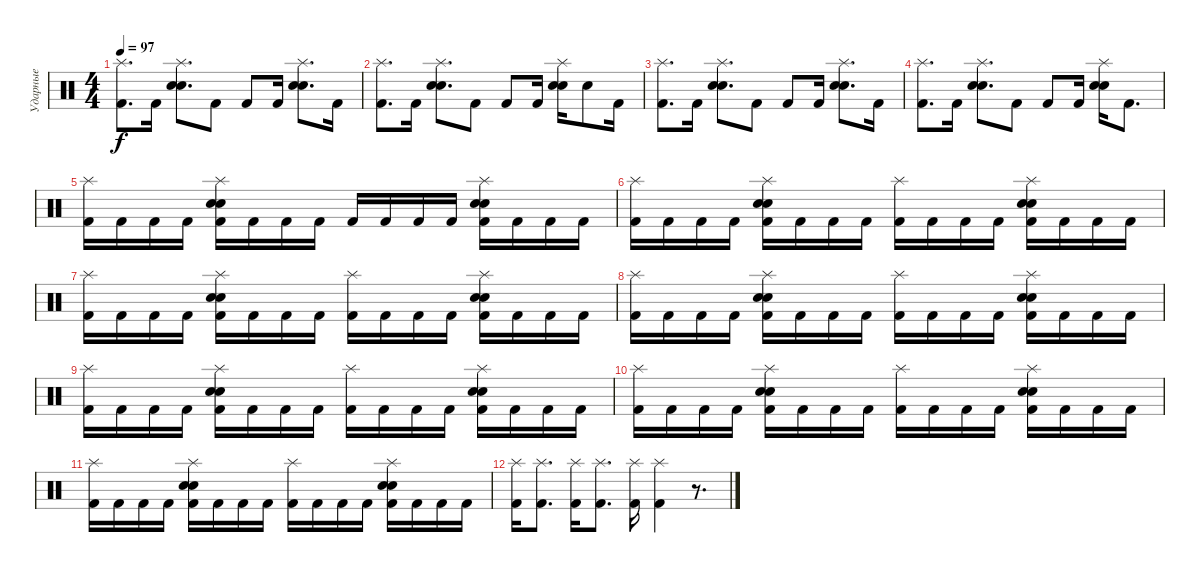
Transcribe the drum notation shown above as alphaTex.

\track ("Ударные" "Ударные") {instrument percussion}
\staff {score}
\articulation defaults
\ts (4 4)
\tempo 97
\clef neutral
\ks c
("Splash (hit)" "Kick (hit) 2").8{d dy f} "Kick (hit) 2".16 ("Splash (hit)" "Electric Snare (hit)" "Snare (hit) 2").8{d} "Kick (hit) 2".8 "Kick (hit) 2".8 "Kick (hit) 2".16 ("Splash (hit)" "Electric Snare (hit)" "Snare (hit) 2").8{d} "Kick (hit) 2".16 |
("Splash (hit)" "Kick (hit) 2").8{d} "Kick (hit) 2".16 ("Splash (hit)" "Electric Snare (hit)" "Snare (hit) 2").8{d} "Kick (hit) 2".8 "Kick (hit) 2".8 "Kick (hit) 2".16 ("Splash (hit)" "Electric Snare (hit)" "Snare (hit) 2").16 "Electric Snare (hit)".8 "Kick (hit) 2".16 |
("Splash (hit)" "Kick (hit) 2").8{d} "Kick (hit) 2".16 ("Splash (hit)" "Electric Snare (hit)" "Snare (hit) 2").8{d} "Kick (hit) 2".8 "Kick (hit) 2".8 "Kick (hit) 2".16 ("Splash (hit)" "Electric Snare (hit)" "Snare (hit) 2").8{d} "Kick (hit) 2".16 |
("Splash (hit)" "Kick (hit) 2").8{d} "Kick (hit) 2".16 ("Splash (hit)" "Electric Snare (hit)" "Snare (hit) 2").8{d} "Kick (hit) 2".8 "Kick (hit) 2".8 "Kick (hit) 2".16 ("Splash (hit)" "Electric Snare (hit)" "Snare (hit) 2").16 "Kick (hit) 2".8{d} |
("Splash (hit)" "Kick (hit) 2").16 "Kick (hit) 2".16 "Kick (hit) 2".16 "Kick (hit) 2".16 ("Splash (hit)" "Electric Snare (hit)" "Snare (hit) 2" "Kick (hit) 2").16 "Kick (hit) 2".16 "Kick (hit) 2".16 "Kick (hit) 2".16 "Kick (hit) 2".16 "Kick (hit) 2".16 "Kick (hit) 2".16 "Kick (hit) 2".16 ("Splash (hit)" "Electric Snare (hit)" "Snare (hit) 2" "Kick (hit) 2").16 "Kick (hit) 2".16 "Kick (hit) 2".16 "Kick (hit) 2".16 |
("Splash (hit)" "Kick (hit) 2").16 "Kick (hit) 2".16 "Kick (hit) 2".16 "Kick (hit) 2".16 ("Splash (hit)" "Electric Snare (hit)" "Snare (hit) 2" "Kick (hit) 2").16 "Kick (hit) 2".16 "Kick (hit) 2".16 "Kick (hit) 2".16 ("Splash (hit)" "Kick (hit) 2").16 "Kick (hit) 2".16 "Kick (hit) 2".16 "Kick (hit) 2".16 ("Splash (hit)" "Electric Snare (hit)" "Snare (hit) 2" "Kick (hit) 2").16 "Kick (hit) 2".16 "Kick (hit) 2".16 "Kick (hit) 2".16 |
("Splash (hit)" "Kick (hit) 2").16 "Kick (hit) 2".16 "Kick (hit) 2".16 "Kick (hit) 2".16 ("Splash (hit)" "Electric Snare (hit)" "Snare (hit) 2" "Kick (hit) 2").16 "Kick (hit) 2".16 "Kick (hit) 2".16 "Kick (hit) 2".16 ("Splash (hit)" "Kick (hit) 2").16 "Kick (hit) 2".16 "Kick (hit) 2".16 "Kick (hit) 2".16 ("Splash (hit)" "Electric Snare (hit)" "Snare (hit) 2" "Kick (hit) 2").16 "Kick (hit) 2".16 "Kick (hit) 2".16 "Kick (hit) 2".16 |
("Splash (hit)" "Kick (hit) 2").16 "Kick (hit) 2".16 "Kick (hit) 2".16 "Kick (hit) 2".16 ("Splash (hit)" "Electric Snare (hit)" "Snare (hit) 2" "Kick (hit) 2").16 "Kick (hit) 2".16 "Kick (hit) 2".16 "Kick (hit) 2".16 ("Splash (hit)" "Kick (hit) 2").16 "Kick (hit) 2".16 "Kick (hit) 2".16 "Kick (hit) 2".16 ("Splash (hit)" "Electric Snare (hit)" "Snare (hit) 2" "Kick (hit) 2").16 "Kick (hit) 2".16 "Kick (hit) 2".16 "Kick (hit) 2".16 |
("Splash (hit)" "Kick (hit) 2").16 "Kick (hit) 2".16 "Kick (hit) 2".16 "Kick (hit) 2".16 ("Splash (hit)" "Electric Snare (hit)" "Snare (hit) 2" "Kick (hit) 2").16 "Kick (hit) 2".16 "Kick (hit) 2".16 "Kick (hit) 2".16 ("Splash (hit)" "Kick (hit) 2").16 "Kick (hit) 2".16 "Kick (hit) 2".16 "Kick (hit) 2".16 ("Splash (hit)" "Electric Snare (hit)" "Snare (hit) 2" "Kick (hit) 2").16 "Kick (hit) 2".16 "Kick (hit) 2".16 "Kick (hit) 2".16 |
("Splash (hit)" "Kick (hit) 2").16 "Kick (hit) 2".16 "Kick (hit) 2".16 "Kick (hit) 2".16 ("Splash (hit)" "Electric Snare (hit)" "Snare (hit) 2" "Kick (hit) 2").16 "Kick (hit) 2".16 "Kick (hit) 2".16 "Kick (hit) 2".16 ("Splash (hit)" "Kick (hit) 2").16 "Kick (hit) 2".16 "Kick (hit) 2".16 "Kick (hit) 2".16 ("Splash (hit)" "Electric Snare (hit)" "Snare (hit) 2" "Kick (hit) 2").16 "Kick (hit) 2".16 "Kick (hit) 2".16 "Kick (hit) 2".16 |
("Splash (hit)" "Kick (hit) 2").16 "Kick (hit) 2".16 "Kick (hit) 2".16 "Kick (hit) 2".16 ("Splash (hit)" "Electric Snare (hit)" "Snare (hit) 2" "Kick (hit) 2").16 "Kick (hit) 2".16 "Kick (hit) 2".16 "Kick (hit) 2".16 ("Splash (hit)" "Kick (hit) 2").16 "Kick (hit) 2".16 "Kick (hit) 2".16 "Kick (hit) 2".16 ("Splash (hit)" "Electric Snare (hit)" "Snare (hit) 2" "Kick (hit) 2").16 "Kick (hit) 2".16 "Kick (hit) 2".16 "Kick (hit) 2".16 |
("Splash (hit)" "Kick (hit) 2").16 ("Splash (hit)" "Kick (hit) 2").8{d} ("Splash (hit)" "Kick (hit) 2").16 ("Splash (hit)" "Kick (hit) 2").8{d} ("Splash (hit)" "Kick (hit) 2").16 ("Splash (hit)" "Kick (hit) 2").4 r.8{d}
